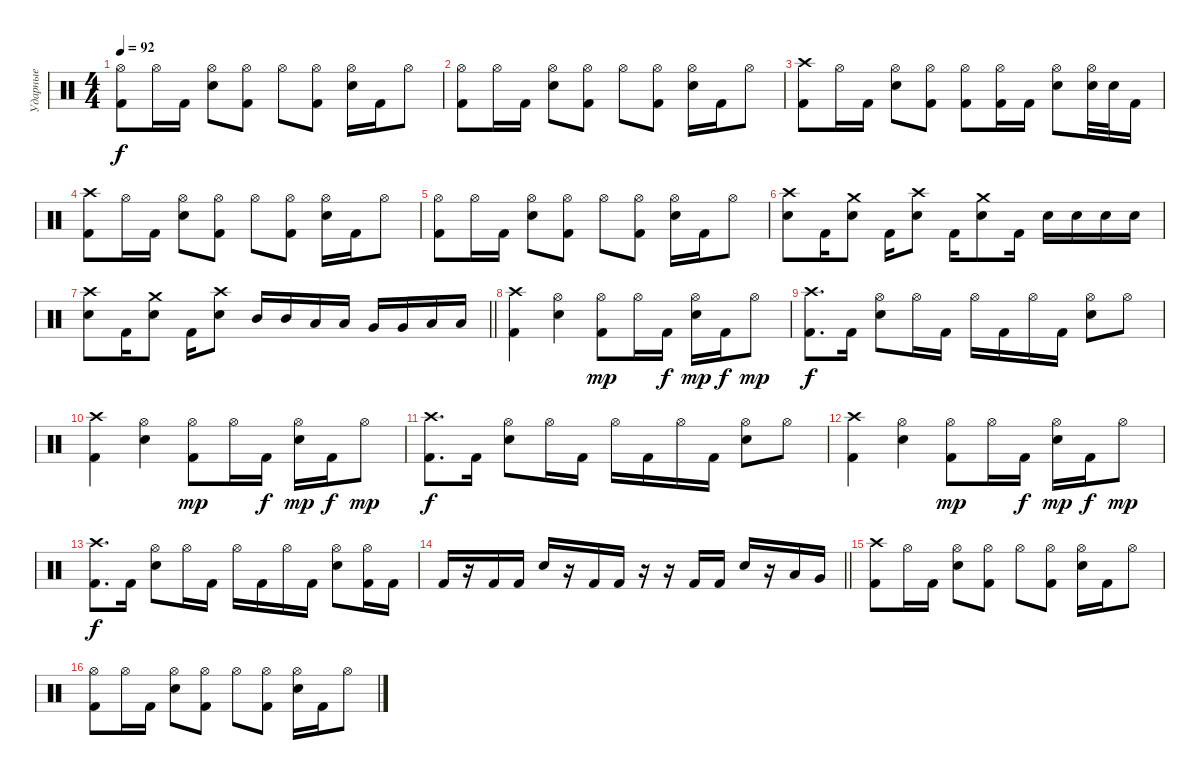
\track ("Ударные" "Ударные") {instrument percussion}
\staff {score}
\articulation defaults
\ts (4 4)
\tempo 92
\clef neutral
\ks c
("Kick (hit) 2" "Hi-Hat (open)").8{dy f} "Hi-Hat (open)".16 "Kick (hit) 2".16 ("Snare (hit) 2" "Hi-Hat (open)").8 ("Kick (hit) 2" "Hi-Hat (open)").8 "Hi-Hat (open)".8 ("Kick (hit) 2" "Hi-Hat (open)").8 ("Snare (hit) 2" "Hi-Hat (open)").16 "Kick (hit) 2".16 "Hi-Hat (open)".8 |
("Kick (hit) 2" "Hi-Hat (open)").8 "Hi-Hat (open)".16 "Kick (hit) 2".16 ("Snare (hit) 2" "Hi-Hat (open)").8 ("Kick (hit) 2" "Hi-Hat (open)").8 "Hi-Hat (open)".8 ("Kick (hit) 2" "Hi-Hat (open)").8 ("Snare (hit) 2" "Hi-Hat (open)").16 "Kick (hit) 2".16 "Hi-Hat (open)".8 |
("Kick (hit) 2" "Crash high (hit)").8 "Hi-Hat (open)".16 "Kick (hit) 2".16 ("Snare (hit) 2" "Hi-Hat (open)").8 ("Kick (hit) 2" "Hi-Hat (open)").8 ("Kick (hit) 2" "Hi-Hat (open)").8 ("Kick (hit) 2" "Hi-Hat (open)").16 "Kick (hit) 2".16 ("Snare (hit) 2" "Hi-Hat (open)").8 ("Snare (hit) 2" "Hi-Hat (open)").32 "Snare (hit) 2".32 "Kick (hit) 2".16 |
("Kick (hit) 2" "Crash high (hit)").8 "Hi-Hat (open)".16 "Kick (hit) 2".16 ("Snare (hit) 2" "Hi-Hat (open)").8 ("Kick (hit) 2" "Hi-Hat (open)").8 "Hi-Hat (open)".8 ("Kick (hit) 2" "Hi-Hat (open)").8 ("Snare (hit) 2" "Hi-Hat (open)").16 "Kick (hit) 2".16 "Hi-Hat (open)".8 |
("Kick (hit) 2" "Hi-Hat (open)").8 "Hi-Hat (open)".16 "Kick (hit) 2".16 ("Snare (hit) 2" "Hi-Hat (open)").8 ("Kick (hit) 2" "Hi-Hat (open)").8 "Hi-Hat (open)".8 ("Kick (hit) 2" "Hi-Hat (open)").8 ("Snare (hit) 2" "Hi-Hat (open)").16 "Kick (hit) 2".16 "Hi-Hat (open)".8 |
("Snare (hit) 2" "Crash high (hit)").8 "Kick (hit) 2".16 ("Snare (hit) 2" "Crash medium (hit)").8 "Kick (hit) 2".16 ("Snare (hit) 2" "Crash high (hit)").8 "Kick (hit) 2".16 ("Snare (hit) 2" "Crash medium (hit)").8 "Kick (hit) 2".16 "Snare (hit) 2".16 "Snare (hit) 2".16 "Snare (hit) 2".16 "Snare (hit) 2".16 |
\barLineRight lightlight
("Snare (hit) 2" "Crash high (hit)").8 "Kick (hit) 2".16 ("Snare (hit) 2" "Crash medium (hit)").8 "Kick (hit) 2".16 ("Snare (hit) 2" "Crash high (hit)").8 "Mid Tom (hit)".16 "Mid Tom (hit)".16 "Low Tom (hit)".16 "Low Tom (hit)".16 "Very Low Tom (hit)".16 "Very Low Tom (hit)".16 "Low Floor Tom (hit)".16 "Low Floor Tom (hit)".16 |
("Kick (hit) 2" "Crash high (hit)").4 ("Snare (hit) 2" "Hi-Hat (open)").4 ("Kick (hit) 2" "Hi-Hat (open)").8{dy mp} "Hi-Hat (open)".16 "Kick (hit) 2".16{dy f} ("Snare (hit) 2" "Hi-Hat (open)").16{dy mp} "Kick (hit) 2".16{dy f} "Hi-Hat (open)".8{dy mp} |
("Kick (hit) 2" "Crash high (hit)").8{d dy f} "Kick (hit) 2".16 ("Snare (hit) 2" "Hi-Hat (open)").8 "Hi-Hat (open)".16 "Kick (hit) 2".16 "Hi-Hat (open)".16 "Kick (hit) 2".16 "Hi-Hat (open)".16 "Kick (hit) 2".16 ("Snare (hit) 2" "Hi-Hat (open)").8 "Hi-Hat (open)".8 |
("Kick (hit) 2" "Crash high (hit)").4 ("Snare (hit) 2" "Hi-Hat (open)").4 ("Kick (hit) 2" "Hi-Hat (open)").8{dy mp} "Hi-Hat (open)".16 "Kick (hit) 2".16{dy f} ("Snare (hit) 2" "Hi-Hat (open)").16{dy mp} "Kick (hit) 2".16{dy f} "Hi-Hat (open)".8{dy mp} |
("Kick (hit) 2" "Crash high (hit)").8{d dy f} "Kick (hit) 2".16 ("Snare (hit) 2" "Hi-Hat (open)").8 "Hi-Hat (open)".16 "Kick (hit) 2".16 "Hi-Hat (open)".16 "Kick (hit) 2".16 "Hi-Hat (open)".16 "Kick (hit) 2".16 ("Snare (hit) 2" "Hi-Hat (open)").8 "Hi-Hat (open)".8 |
("Kick (hit) 2" "Crash high (hit)").4 ("Snare (hit) 2" "Hi-Hat (open)").4 ("Kick (hit) 2" "Hi-Hat (open)").8{dy mp} "Hi-Hat (open)".16 "Kick (hit) 2".16{dy f} ("Snare (hit) 2" "Hi-Hat (open)").16{dy mp} "Kick (hit) 2".16{dy f} "Hi-Hat (open)".8{dy mp} |
("Kick (hit) 2" "Crash high (hit)").8{d dy f} "Kick (hit) 2".16 ("Snare (hit) 2" "Hi-Hat (open)").8 "Hi-Hat (open)".16 "Kick (hit) 2".16 "Hi-Hat (open)".16 "Kick (hit) 2".16 "Hi-Hat (open)".16 "Kick (hit) 2".16 ("Snare (hit) 2" "Hi-Hat (open)").8 ("Kick (hit) 2" "Hi-Hat (open)").16 "Kick (hit) 2".16 |
\barLineRight lightlight "Kick (hit) 2".16
r.16 "Kick (hit) 2".16 "Kick (hit) 2".16 "Snare (hit) 2".16 r.16 "Kick (hit) 2".16 "Kick (hit) 2".16 r.16 r.16 "Kick (hit) 2".16 "Kick (hit) 2".16 "Snare (hit) 2".16 r.16 "Low Tom (hit)".16 "Very Low Tom (hit)".16 |
("Kick (hit) 2" "Crash high (hit)").8 "Hi-Hat (open)".16 "Kick (hit) 2".16 ("Snare (hit) 2" "Hi-Hat (open)").8 ("Kick (hit) 2" "Hi-Hat (open)").8 "Hi-Hat (open)".8 ("Kick (hit) 2" "Hi-Hat (open)").8 ("Snare (hit) 2" "Hi-Hat (open)").16 "Kick (hit) 2".16 "Hi-Hat (open)".8 |
("Kick (hit) 2" "Hi-Hat (open)").8 "Hi-Hat (open)".16 "Kick (hit) 2".16 ("Snare (hit) 2" "Hi-Hat (open)").8 ("Kick (hit) 2" "Hi-Hat (open)").8 "Hi-Hat (open)".8 ("Kick (hit) 2" "Hi-Hat (open)").8 ("Snare (hit) 2" "Hi-Hat (open)").16 "Kick (hit) 2".16 "Hi-Hat (open)".8
